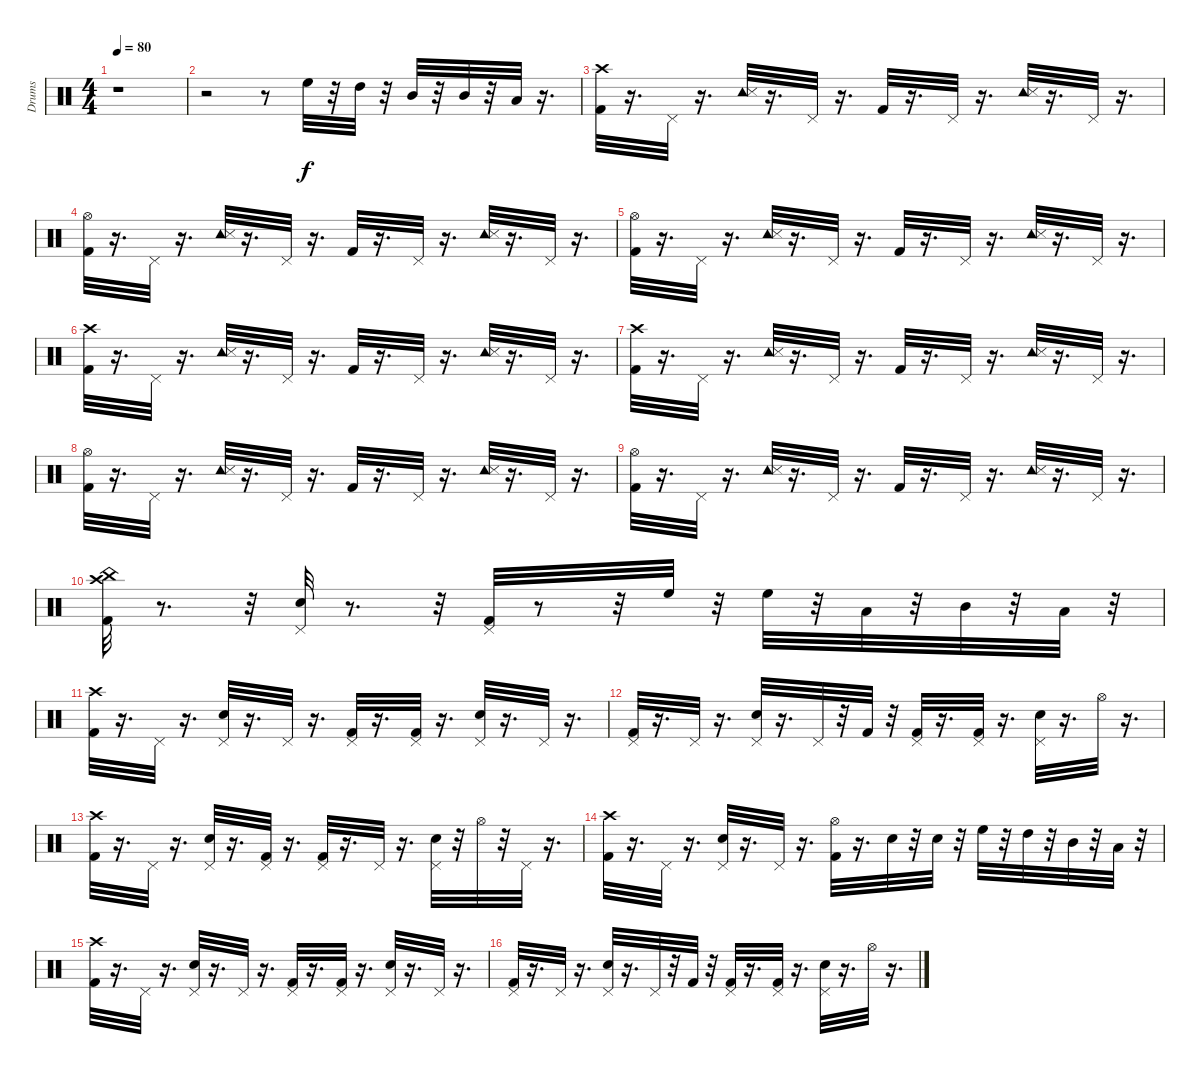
\track ("Drums" "Drums") {instrument percussion}
\staff {score}
\articulation defaults
\ts (4 4)
\tempo 80
\clef neutral
\ks c
r.1{dy fff} |
r.2 r.8 "High Floor Tom (hit)".32{dy f} r.32 "High Tom (hit)".32 r.32 "Mid Tom (hit)".32 r.32 "Mid Tom (hit)".32 r.32 "Low Tom (hit)".32 r.16{d} |
("Crash high (hit)" "Kick (hit) 2").32 r.16{d} "Pedal Hi-Hat (hit)".32 r.16{d} ("Tambourine (hit)" "Snare (side stick) 3").32 r.16{d} "Pedal Hi-Hat (hit)".32 r.16{d} "Kick (hit) 2".32 r.16{d} "Pedal Hi-Hat (hit)".32 r.16{d} ("Tambourine (hit)" "Snare (side stick) 3").32 r.16{d} "Pedal Hi-Hat (hit)".32 r.16{d} |
("Hi-Hat (open)" "Kick (hit) 2").32 r.16{d} "Pedal Hi-Hat (hit)".32 r.16{d} ("Tambourine (hit)" "Snare (side stick) 3").32 r.16{d} "Pedal Hi-Hat (hit)".32 r.16{d} "Kick (hit) 2".32 r.16{d} "Pedal Hi-Hat (hit)".32 r.16{d} ("Tambourine (hit)" "Snare (side stick) 3").32 r.16{d} "Pedal Hi-Hat (hit)".32 r.16{d} |
("Hi-Hat (open)" "Kick (hit) 2").32 r.16{d} "Pedal Hi-Hat (hit)".32 r.16{d} ("Tambourine (hit)" "Snare (side stick) 3").32 r.16{d} "Pedal Hi-Hat (hit)".32 r.16{d} "Kick (hit) 2".32 r.16{d} "Pedal Hi-Hat (hit)".32 r.16{d} ("Tambourine (hit)" "Snare (side stick) 3").32 r.16{d} "Pedal Hi-Hat (hit)".32 r.16{d} |
("Crash high (hit)" "Kick (hit) 2").32 r.16{d} "Pedal Hi-Hat (hit)".32 r.16{d} ("Tambourine (hit)" "Snare (side stick) 3").32 r.16{d} "Pedal Hi-Hat (hit)".32 r.16{d} "Kick (hit) 2".32 r.16{d} "Pedal Hi-Hat (hit)".32 r.16{d} ("Tambourine (hit)" "Snare (side stick) 3").32 r.16{d} "Pedal Hi-Hat (hit)".32 r.16{d} |
("Crash high (hit)" "Kick (hit) 2").32 r.16{d} "Pedal Hi-Hat (hit)".32 r.16{d} ("Tambourine (hit)" "Snare (side stick) 3").32 r.16{d} "Pedal Hi-Hat (hit)".32 r.16{d} "Kick (hit) 2".32 r.16{d} "Pedal Hi-Hat (hit)".32 r.16{d} ("Tambourine (hit)" "Snare (side stick) 3").32 r.16{d} "Pedal Hi-Hat (hit)".32 r.16{d} |
("Hi-Hat (open)" "Kick (hit) 2").32 r.16{d} "Pedal Hi-Hat (hit)".32 r.16{d} ("Tambourine (hit)" "Snare (side stick) 3").32 r.16{d} "Pedal Hi-Hat (hit)".32 r.16{d} "Kick (hit) 2".32 r.16{d} "Pedal Hi-Hat (hit)".32 r.16{d} ("Tambourine (hit)" "Snare (side stick) 3").32 r.16{d} "Pedal Hi-Hat (hit)".32 r.16{d} |
("Hi-Hat (open)" "Kick (hit) 2").32 r.16{d} "Pedal Hi-Hat (hit)".32 r.16{d} ("Tambourine (hit)" "Snare (side stick) 3").32 r.16{d} "Pedal Hi-Hat (hit)".32 r.16{d} "Kick (hit) 2".32 r.16{d} "Pedal Hi-Hat (hit)".32 r.16{d} ("Tambourine (hit)" "Snare (side stick) 3").32 r.16{d} "Pedal Hi-Hat (hit)".32 r.16{d} |
("Kick (hit) 2" "China (hit)" "Crash high (hit)").32 r.8{d} r.32 ("Pedal Hi-Hat (hit)" "Snare (hit) 2").32 r.8{d} r.32 ("Pedal Hi-Hat (hit)" "Kick (hit) 2").32 r.8 r.32 "High Floor Tom (hit)".32 r.32 "High Floor Tom (hit)".32 r.32 "Low Tom (hit)".32 r.32 "Mid Tom (hit)".32 r.32 "Low Tom (hit)".32 r.32 |
("Crash high (hit)" "Kick (hit) 2").32 r.16{d} "Pedal Hi-Hat (hit)".32 r.16{d} ("Pedal Hi-Hat (hit)" "Snare (hit) 2").32 r.16{d} "Pedal Hi-Hat (hit)".32 r.16{d} ("Pedal Hi-Hat (hit)" "Kick (hit) 2").32 r.16{d} ("Pedal Hi-Hat (hit)" "Kick (hit) 2").32 r.16{d} ("Pedal Hi-Hat (hit)" "Snare (hit) 2").32 r.16{d} "Pedal Hi-Hat (hit)".32 r.16{d} |
("Pedal Hi-Hat (hit)" "Kick (hit) 2").32 r.16{d} "Pedal Hi-Hat (hit)".32 r.16{d} ("Pedal Hi-Hat (hit)" "Snare (hit) 2").32 r.16{d} "Pedal Hi-Hat (hit)".32 r.32 "Kick (hit) 2".32 r.32 ("Pedal Hi-Hat (hit)" "Kick (hit) 2").32 r.16{d} ("Pedal Hi-Hat (hit)" "Kick (hit) 2").32 r.16{d} ("Pedal Hi-Hat (hit)" "Snare (hit) 2").32 r.16{d} "Hi-Hat (open)".32 r.16{d} |
("Crash high (hit)" "Kick (hit) 2").32 r.16{d} "Pedal Hi-Hat (hit)".32 r.16{d} ("Pedal Hi-Hat (hit)" "Snare (hit) 2").32 r.16{d} ("Pedal Hi-Hat (hit)" "Kick (hit) 2").32 r.16{d} ("Pedal Hi-Hat (hit)" "Kick (hit) 2").32 r.16{d} "Pedal Hi-Hat (hit)".32 r.16{d} ("Pedal Hi-Hat (hit)" "Snare (hit) 2").32 r.32 "Hi-Hat (open)".32 r.32 "Pedal Hi-Hat (hit)".32 r.16{d} |
("Crash high (hit)" "Kick (hit) 2").32 r.16{d} "Pedal Hi-Hat (hit)".32 r.16{d} ("Pedal Hi-Hat (hit)" "Snare (hit) 2").32 r.16{d} "Pedal Hi-Hat (hit)".32 r.16{d} ("Hi-Hat (open)" "Kick (hit) 2").32 r.16{d} "Snare (hit) 2".32 r.32 "Snare (hit) 2".32 r.32 "High Floor Tom (hit)".32 r.32 "High Tom (hit)".32 r.32 "Mid Tom (hit)".32 r.32 "Low Tom (hit)".32 r.32 |
("Crash high (hit)" "Kick (hit) 2").32 r.16{d} "Pedal Hi-Hat (hit)".32 r.16{d} ("Pedal Hi-Hat (hit)" "Snare (hit) 2").32 r.16{d} "Pedal Hi-Hat (hit)".32 r.16{d} ("Pedal Hi-Hat (hit)" "Kick (hit) 2").32 r.16{d} ("Pedal Hi-Hat (hit)" "Kick (hit) 2").32 r.16{d} ("Pedal Hi-Hat (hit)" "Snare (hit) 2").32 r.16{d} "Pedal Hi-Hat (hit)".32 r.16{d} |
("Pedal Hi-Hat (hit)" "Kick (hit) 2").32 r.16{d} "Pedal Hi-Hat (hit)".32 r.16{d} ("Pedal Hi-Hat (hit)" "Snare (hit) 2").32 r.16{d} "Pedal Hi-Hat (hit)".32 r.32 "Kick (hit) 2".32 r.32 ("Pedal Hi-Hat (hit)" "Kick (hit) 2").32 r.16{d} ("Pedal Hi-Hat (hit)" "Kick (hit) 2").32 r.16{d} ("Pedal Hi-Hat (hit)" "Snare (hit) 2").32 r.16{d} "Hi-Hat (open)".32 r.16{d}
